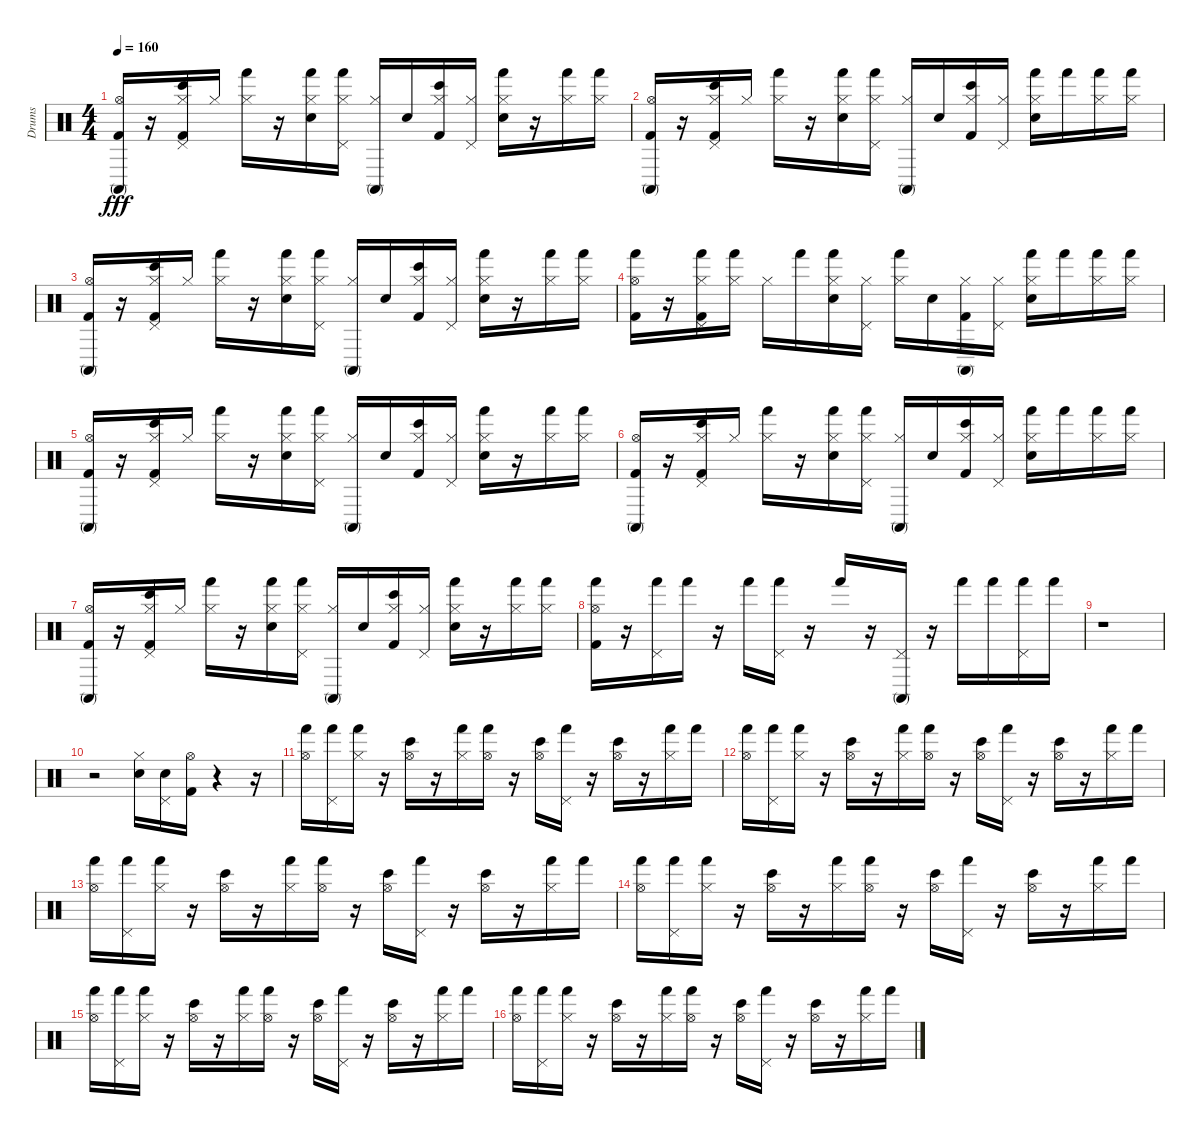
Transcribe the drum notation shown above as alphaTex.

\track ("Drums" "Drums") {instrument percussion}
\staff {score}
\articulation defaults
\ts (4 4)
\tempo 160
\clef neutral
\ks c
("Kick (hit) 2" "Hi-Hat (open)" "Conga high (mute)").16{dy fff} r.16 ("Hi-Hat (closed)" "Bongo High (hit)" "Pedal Hi-Hat (hit)" "Kick (hit) 2").16 "Hi-Hat (closed)".16 ("Hand (hit)" "Hi-Hat (closed)").16 r.16 ("Hand (hit)" "Hi-Hat (closed)" "Electric Snare (hit)").16 ("Pedal Hi-Hat (hit)" "Hand (hit)" "Hi-Hat (closed)").16 ("Hi-Hat (closed)" "Conga high (mute)").16 "Electric Snare (hit)".16 ("Hi-Hat (closed)" "Kick (hit) 2" "Bongo High (hit)").16 ("Hi-Hat (closed)" "Pedal Hi-Hat (hit)").16 ("Hand (hit)" "Electric Snare (hit)" "Hi-Hat (closed)").16 r.16 ("Hi-Hat (closed)" "Hand (hit)").16 ("Hi-Hat (closed)" "Hand (hit)").16 |
("Conga high (mute)" "Hi-Hat (open)" "Kick (hit) 2").16 r.16 ("Bongo High (hit)" "Kick (hit) 2" "Hi-Hat (closed)" "Pedal Hi-Hat (hit)").16 "Hi-Hat (closed)".16 ("Hand (hit)" "Hi-Hat (closed)").16 r.16 ("Hi-Hat (closed)" "Electric Snare (hit)" "Hand (hit)").16 ("Hand (hit)" "Pedal Hi-Hat (hit)" "Hi-Hat (closed)").16 ("Conga high (mute)" "Hi-Hat (closed)").16 "Electric Snare (hit)".16 ("Bongo High (hit)" "Hi-Hat (closed)" "Kick (hit) 2").16 ("Hi-Hat (closed)" "Pedal Hi-Hat (hit)").16 ("Hand (hit)" "Hi-Hat (closed)" "Electric Snare (hit)").16 "Hand (hit)".16 ("Hi-Hat (closed)" "Hand (hit)").16 ("Hi-Hat (closed)" "Hand (hit)").16 |
("Kick (hit) 2" "Hi-Hat (open)" "Conga high (mute)").16 r.16 ("Hi-Hat (closed)" "Kick (hit) 2" "Pedal Hi-Hat (hit)" "Bongo High (hit)").16 "Hi-Hat (closed)".16 ("Hand (hit)" "Hi-Hat (closed)").16 r.16 ("Hand (hit)" "Electric Snare (hit)" "Hi-Hat (closed)").16 ("Hand (hit)" "Hi-Hat (closed)" "Pedal Hi-Hat (hit)").16 ("Conga high (mute)" "Hi-Hat (closed)").16 "Electric Snare (hit)".16 ("Hi-Hat (closed)" "Kick (hit) 2" "Bongo High (hit)").16 ("Pedal Hi-Hat (hit)" "Hi-Hat (closed)").16 ("Electric Snare (hit)" "Hand (hit)" "Hi-Hat (closed)").16 r.16 ("Hi-Hat (closed)" "Hand (hit)").16 ("Hi-Hat (closed)" "Hand (hit)").16 |
("Hi-Hat (open)" "Kick (hit) 2" "Hand (hit)").16 r.16 ("Kick (hit) 2" "Hand (hit)" "Hi-Hat (closed)" "Pedal Hi-Hat (hit)").16 ("Hi-Hat (closed)" "Hand (hit)").16 "Hi-Hat (closed)".16 "Hand (hit)".16 ("Electric Snare (hit)" "Hand (hit)" "Hi-Hat (closed)").16 ("Hi-Hat (closed)" "Pedal Hi-Hat (hit)").16 ("Hand (hit)" "Hi-Hat (closed)").16 "Electric Snare (hit)".16 ("Conga high (mute)" "Hi-Hat (closed)" "Kick (hit) 2").16 ("Hi-Hat (closed)" "Pedal Hi-Hat (hit)").16 ("Electric Snare (hit)" "Hand (hit)" "Hi-Hat (closed)").16 "Hand (hit)".16 ("Hand (hit)" "Hi-Hat (closed)").16 ("Hand (hit)" "Hi-Hat (closed)").16 |
("Conga high (mute)" "Hi-Hat (open)" "Kick (hit) 2").16 r.16 ("Hi-Hat (closed)" "Bongo High (hit)" "Kick (hit) 2" "Pedal Hi-Hat (hit)").16 "Hi-Hat (closed)".16 ("Hand (hit)" "Hi-Hat (closed)").16 r.16 ("Electric Snare (hit)" "Hand (hit)" "Hi-Hat (closed)").16 ("Pedal Hi-Hat (hit)" "Hi-Hat (closed)" "Hand (hit)").16 ("Hi-Hat (closed)" "Conga high (mute)").16 "Electric Snare (hit)".16 ("Bongo High (hit)" "Hi-Hat (closed)" "Kick (hit) 2").16 ("Pedal Hi-Hat (hit)" "Hi-Hat (closed)").16 ("Hand (hit)" "Electric Snare (hit)" "Hi-Hat (closed)").16 r.16 ("Hand (hit)" "Hi-Hat (closed)").16 ("Hand (hit)" "Hi-Hat (closed)").16 |
("Kick (hit) 2" "Conga high (mute)" "Hi-Hat (open)").16 r.16 ("Bongo High (hit)" "Pedal Hi-Hat (hit)" "Hi-Hat (closed)" "Kick (hit) 2").16 "Hi-Hat (closed)".16 ("Hand (hit)" "Hi-Hat (closed)").16 r.16 ("Hi-Hat (closed)" "Electric Snare (hit)" "Hand (hit)").16 ("Hand (hit)" "Pedal Hi-Hat (hit)" "Hi-Hat (closed)").16 ("Conga high (mute)" "Hi-Hat (closed)").16 "Electric Snare (hit)".16 ("Kick (hit) 2" "Bongo High (hit)" "Hi-Hat (closed)").16 ("Pedal Hi-Hat (hit)" "Hi-Hat (closed)").16 ("Electric Snare (hit)" "Hi-Hat (closed)" "Hand (hit)").16 "Hand (hit)".16 ("Hand (hit)" "Hi-Hat (closed)").16 ("Hi-Hat (closed)" "Hand (hit)").16 |
("Kick (hit) 2" "Conga high (mute)" "Hi-Hat (open)").16 r.16 ("Pedal Hi-Hat (hit)" "Bongo High (hit)" "Hi-Hat (closed)" "Kick (hit) 2").16 "Hi-Hat (closed)".16 ("Hand (hit)" "Hi-Hat (closed)").16 r.16 ("Hand (hit)" "Electric Snare (hit)" "Hi-Hat (closed)").16 ("Hand (hit)" "Hi-Hat (closed)" "Pedal Hi-Hat (hit)").16 ("Hi-Hat (closed)" "Conga high (mute)").16 "Electric Snare (hit)".16 ("Bongo High (hit)" "Kick (hit) 2" "Hi-Hat (closed)").16 ("Pedal Hi-Hat (hit)" "Hi-Hat (closed)").16 ("Hi-Hat (closed)" "Hand (hit)" "Electric Snare (hit)").16 r.16 ("Hand (hit)" "Hi-Hat (closed)").16 ("Hi-Hat (closed)" "Hand (hit)").16 |
("Hi-Hat (open)" "Kick (hit) 2" "Hand (hit)").16 r.16 ("Pedal Hi-Hat (hit)" "Hand (hit)").16 "Hand (hit)".16 r.16 "Hand (hit)".16 ("Hand (hit)" "Pedal Hi-Hat (hit)").16 r.16 "Hand (hit)".16 r.16 ("Conga high (mute)" "Pedal Hi-Hat (hit)").16 r.16 "Hand (hit)".16 "Hand (hit)".16 ("Hand (hit)" "Pedal Hi-Hat (hit)").16 "Hand (hit)".16 |
r.1 |
r.2 ("Hi-Hat (closed)" "Electric Snare (hit)").16 ("Electric Snare (hit)" "Pedal Hi-Hat (hit)").16 ("Hi-Hat (open)" "Kick (hit) 2").16 r.4 r.16 |
("Hi-Hat (open)" "Hand (hit)").16 ("Hand (hit)" "Pedal Hi-Hat (hit)").16 ("Hi-Hat (closed)" "Hand (hit)").16 r.16 ("Hi-Hat (open)" "Bongo High (hit)").16 r.16 ("Hi-Hat (closed)" "Hand (hit)").16 ("Hi-Hat (open)" "Hand (hit)").16 r.16 ("Hi-Hat (open)" "Bongo High (hit)").16 ("Pedal Hi-Hat (hit)" "Hand (hit)").16 r.16 ("Bongo High (hit)" "Hi-Hat (open)").16 r.16 ("Hand (hit)" "Hi-Hat (closed)").16 "Hand (hit)".16 |
("Hi-Hat (open)" "Hand (hit)").16 ("Pedal Hi-Hat (hit)" "Hand (hit)").16 ("Hand (hit)" "Hi-Hat (closed)").16 r.16 ("Hi-Hat (open)" "Bongo High (hit)").16 r.16 ("Hi-Hat (closed)" "Hand (hit)").16 ("Hi-Hat (open)" "Hand (hit)").16 r.16 ("Hi-Hat (open)" "Bongo High (hit)").16 ("Pedal Hi-Hat (hit)" "Hand (hit)").16 r.16 ("Hi-Hat (open)" "Bongo High (hit)").16 r.16 ("Hi-Hat (closed)" "Hand (hit)").16 "Hand (hit)".16 |
("Hand (hit)" "Hi-Hat (open)").16 ("Hand (hit)" "Pedal Hi-Hat (hit)").16 ("Hand (hit)" "Hi-Hat (closed)").16 r.16 ("Hi-Hat (open)" "Bongo High (hit)").16 r.16 ("Hand (hit)" "Hi-Hat (closed)").16 ("Hi-Hat (open)" "Hand (hit)").16 r.16 ("Hi-Hat (open)" "Bongo High (hit)").16 ("Hand (hit)" "Pedal Hi-Hat (hit)").16 r.16 ("Hi-Hat (open)" "Bongo High (hit)").16 r.16 ("Hi-Hat (closed)" "Hand (hit)").16 "Hand (hit)".16 |
("Hand (hit)" "Hi-Hat (open)").16 ("Pedal Hi-Hat (hit)" "Hand (hit)").16 ("Hi-Hat (closed)" "Hand (hit)").16 r.16 ("Hi-Hat (open)" "Bongo High (hit)").16 r.16 ("Hand (hit)" "Hi-Hat (closed)").16 ("Hi-Hat (open)" "Hand (hit)").16 r.16 ("Hi-Hat (open)" "Bongo High (hit)").16 ("Pedal Hi-Hat (hit)" "Hand (hit)").16 r.16 ("Bongo High (hit)" "Hi-Hat (open)").16 r.16 ("Hand (hit)" "Hi-Hat (closed)").16 "Hand (hit)".16 |
("Hi-Hat (open)" "Hand (hit)").16 ("Hand (hit)" "Pedal Hi-Hat (hit)").16 ("Hand (hit)" "Hi-Hat (closed)").16 r.16 ("Bongo High (hit)" "Hi-Hat (open)").16 r.16 ("Hand (hit)" "Hi-Hat (closed)").16 ("Hand (hit)" "Hi-Hat (open)").16 r.16 ("Bongo High (hit)" "Hi-Hat (open)").16 ("Pedal Hi-Hat (hit)" "Hand (hit)").16 r.16 ("Bongo High (hit)" "Hi-Hat (open)").16 r.16 ("Hand (hit)" "Hi-Hat (closed)").16 "Hand (hit)".16 |
("Hand (hit)" "Hi-Hat (open)").16 ("Hand (hit)" "Pedal Hi-Hat (hit)").16 ("Hi-Hat (closed)" "Hand (hit)").16 r.16 ("Bongo High (hit)" "Hi-Hat (open)").16 r.16 ("Hi-Hat (closed)" "Hand (hit)").16 ("Hand (hit)" "Hi-Hat (open)").16 r.16 ("Bongo High (hit)" "Hi-Hat (open)").16 ("Pedal Hi-Hat (hit)" "Hand (hit)").16 r.16 ("Hi-Hat (open)" "Bongo High (hit)").16 r.16 ("Hi-Hat (closed)" "Hand (hit)").16 "Hand (hit)".16
